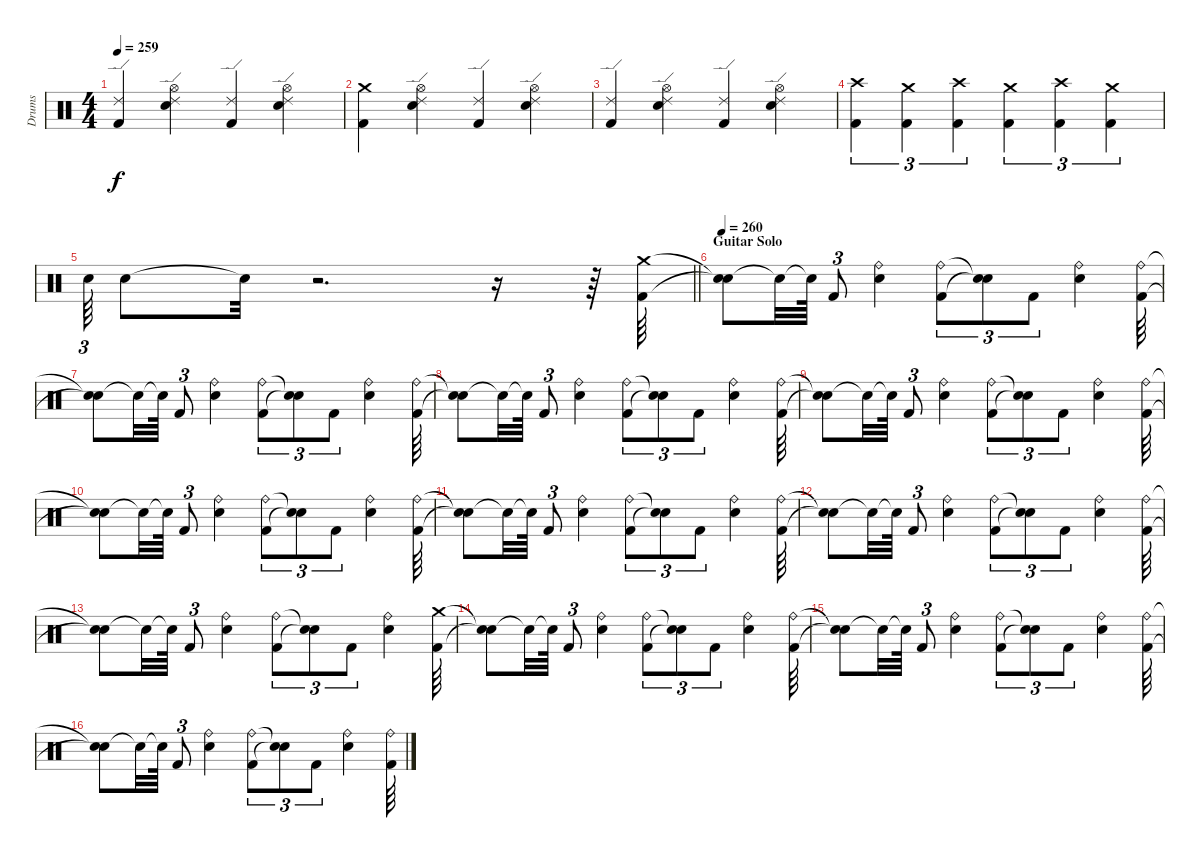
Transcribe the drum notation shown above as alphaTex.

\track ("Drums" "Drums") {instrument percussion}
\staff {score}
\articulation defaults
\ts (4 4)
\tempo 259
\clef neutral
\ks c
("Kick (hit) 2" "Ride (edge) 2").4{dy f} ("Electric Snare (hit)" "Ride (edge) 2" "Hi-Hat (open)").4 ("Kick (hit) 2" "Ride (edge) 2").4 ("Electric Snare (hit)" "Ride (edge) 2" "Hi-Hat (open)").4 |
("Kick (hit) 2" "Crash medium (hit)").4 ("Electric Snare (hit)" "Ride (edge) 2" "Hi-Hat (open)").4 ("Kick (hit) 2" "Ride (edge) 2").4 ("Electric Snare (hit)" "Ride (edge) 2" "Hi-Hat (open)").4 |
("Kick (hit) 2" "Ride (edge) 2").4 ("Electric Snare (hit)" "Ride (edge) 2" "Hi-Hat (open)").4 ("Kick (hit) 2" "Ride (edge) 2").4 ("Electric Snare (hit)" "Ride (edge) 2" "Hi-Hat (open)").4 |
("Kick (hit) 2" "Crash high (hit)").4{tu (3 2)} ("Kick (hit) 2" "Crash medium (hit)").4{tu (3 2)} ("Kick (hit) 2" "Crash high (hit)").4{tu (3 2)} ("Kick (hit) 2" "Crash medium (hit)").4{tu (3 2)} ("Kick (hit) 2" "Crash high (hit)").4{tu (3 2)} ("Kick (hit) 2" "Crash medium (hit)").4{tu (3 2)} |
\barLineRight lightlight "Electric Snare (hit)".64{tu (3 2)} "Electric Snare (hit)".8 "Snare (hit)"{t}.32
r.2{d} r.16 r.64 ("Kick (hit) 2" "Crash medium (hit)").64 |
\section ("" "Guitar Solo")
\tempo 260
("Snare (hit)"{t} "Snare (hit)"{t}).8 "Snare (hit)"{t}.32 "Snare (hit)"{t}.64 "Kick (hit) 2".8{tu (3 2)} ("Electric Snare (hit)" "Ride (bell)").4 ("Kick (hit) 2" "Ride (bell)").8{tu (3 2)} ("Snare (hit)"{t} "Snare (hit)"{t}).8{tu (3 2)} "Kick (hit) 2".8{tu (3 2)} ("Electric Snare (hit)" "Ride (bell)").4 ("Kick (hit) 2" "Ride (bell)").64 |
("Snare (hit)"{t} "Snare (hit)"{t}).8 "Snare (hit)"{t}.32 "Snare (hit)"{t}.64 "Kick (hit) 2".8{tu (3 2)} ("Electric Snare (hit)" "Ride (bell)").4 ("Kick (hit) 2" "Ride (bell)").8{tu (3 2)} ("Snare (hit)"{t} "Snare (hit)"{t}).8{tu (3 2)} "Kick (hit) 2".8{tu (3 2)} ("Electric Snare (hit)" "Ride (bell)").4 ("Kick (hit) 2" "Ride (bell)").64 |
("Snare (hit)"{t} "Snare (hit)"{t}).8 "Snare (hit)"{t}.32 "Snare (hit)"{t}.64 "Kick (hit) 2".8{tu (3 2)} ("Electric Snare (hit)" "Ride (bell)").4 ("Kick (hit) 2" "Ride (bell)").8{tu (3 2)} ("Snare (hit)"{t} "Snare (hit)"{t}).8{tu (3 2)} "Kick (hit) 2".8{tu (3 2)} ("Electric Snare (hit)" "Ride (bell)").4 ("Kick (hit) 2" "Ride (bell)").64 |
("Snare (hit)"{t} "Snare (hit)"{t}).8 "Snare (hit)"{t}.32 "Snare (hit)"{t}.64 "Kick (hit) 2".8{tu (3 2)} ("Electric Snare (hit)" "Ride (bell)").4 ("Kick (hit) 2" "Ride (bell)").8{tu (3 2)} ("Snare (hit)"{t} "Snare (hit)"{t}).8{tu (3 2)} "Kick (hit) 2".8{tu (3 2)} ("Electric Snare (hit)" "Ride (bell)").4 ("Kick (hit) 2" "Ride (bell)").64 |
("Snare (hit)"{t} "Snare (hit)"{t}).8 "Snare (hit)"{t}.32 "Snare (hit)"{t}.64 "Kick (hit) 2".8{tu (3 2)} ("Electric Snare (hit)" "Ride (bell)").4 ("Kick (hit) 2" "Ride (bell)").8{tu (3 2)} ("Snare (hit)"{t} "Snare (hit)"{t}).8{tu (3 2)} "Kick (hit) 2".8{tu (3 2)} ("Electric Snare (hit)" "Ride (bell)").4 ("Kick (hit) 2" "Ride (bell)").64 |
("Snare (hit)"{t} "Snare (hit)"{t}).8 "Snare (hit)"{t}.32 "Snare (hit)"{t}.64 "Kick (hit) 2".8{tu (3 2)} ("Electric Snare (hit)" "Ride (bell)").4 ("Kick (hit) 2" "Ride (bell)").8{tu (3 2)} ("Snare (hit)"{t} "Snare (hit)"{t}).8{tu (3 2)} "Kick (hit) 2".8{tu (3 2)} ("Electric Snare (hit)" "Ride (bell)").4 ("Kick (hit) 2" "Ride (bell)").64 |
("Snare (hit)"{t} "Snare (hit)"{t}).8 "Snare (hit)"{t}.32 "Snare (hit)"{t}.64 "Kick (hit) 2".8{tu (3 2)} ("Electric Snare (hit)" "Ride (bell)").4 ("Kick (hit) 2" "Ride (bell)").8{tu (3 2)} ("Snare (hit)"{t} "Snare (hit)"{t}).8{tu (3 2)} "Kick (hit) 2".8{tu (3 2)} ("Electric Snare (hit)" "Ride (bell)").4 ("Kick (hit) 2" "Ride (bell)").64 |
("Snare (hit)"{t} "Snare (hit)"{t}).8 "Snare (hit)"{t}.32 "Snare (hit)"{t}.64 "Kick (hit) 2".8{tu (3 2)} ("Electric Snare (hit)" "Ride (bell)").4 ("Kick (hit) 2" "Ride (bell)").8{tu (3 2)} ("Snare (hit)"{t} "Snare (hit)"{t}).8{tu (3 2)} "Kick (hit) 2".8{tu (3 2)} ("Electric Snare (hit)" "Ride (bell)").4 ("Kick (hit) 2" "Crash medium (hit)").64 |
("Snare (hit)"{t} "Snare (hit)"{t}).8 "Snare (hit)"{t}.32 "Snare (hit)"{t}.64 "Kick (hit) 2".8{tu (3 2)} ("Electric Snare (hit)" "Ride (bell)").4 ("Kick (hit) 2" "Ride (bell)").8{tu (3 2)} ("Snare (hit)"{t} "Snare (hit)"{t}).8{tu (3 2)} "Kick (hit) 2".8{tu (3 2)} ("Electric Snare (hit)" "Ride (bell)").4 ("Kick (hit) 2" "Ride (bell)").64 |
("Snare (hit)"{t} "Snare (hit)"{t}).8 "Snare (hit)"{t}.32 "Snare (hit)"{t}.64 "Kick (hit) 2".8{tu (3 2)} ("Electric Snare (hit)" "Ride (bell)").4 ("Kick (hit) 2" "Ride (bell)").8{tu (3 2)} ("Snare (hit)"{t} "Snare (hit)"{t}).8{tu (3 2)} "Kick (hit) 2".8{tu (3 2)} ("Electric Snare (hit)" "Ride (bell)").4 ("Kick (hit) 2" "Ride (bell)").64 |
("Snare (hit)"{t} "Snare (hit)"{t}).8 "Snare (hit)"{t}.32 "Snare (hit)"{t}.64 "Kick (hit) 2".8{tu (3 2)} ("Electric Snare (hit)" "Ride (bell)").4 ("Kick (hit) 2" "Ride (bell)").8{tu (3 2)} ("Snare (hit)"{t} "Snare (hit)"{t}).8{tu (3 2)} "Kick (hit) 2".8{tu (3 2)} ("Electric Snare (hit)" "Ride (bell)").4 ("Kick (hit) 2" "Ride (bell)").64
